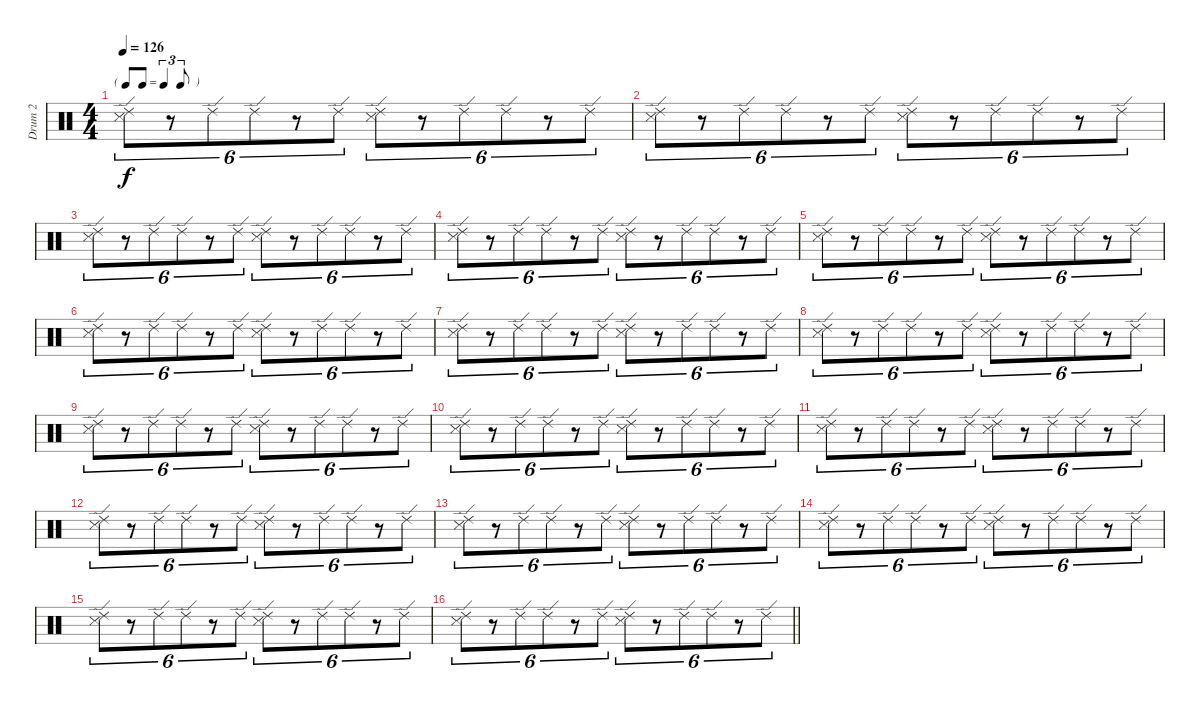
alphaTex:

\track ("Drum 2" "Drum 2") {instrument percussion}
\staff {score}
\articulation defaults
\ts (4 4)
\tf triplet8th
\tempo 126
\clef neutral
\ks c
("Ride (edge) 2" "Snare (side stick) 3").8{tu (6 4) dy f} r.8{tu (6 4)} "Ride (edge) 2".8{tu (6 4)} "Ride (edge) 2".8{tu (6 4)} r.8{tu (6 4)} "Ride (edge) 2".8{tu (6 4)} ("Ride (edge) 2" "Snare (side stick) 3").8{tu (6 4)} r.8{tu (6 4)} "Ride (edge) 2".8{tu (6 4)} "Ride (edge) 2".8{tu (6 4)} r.8{tu (6 4)} "Ride (edge) 2".8{tu (6 4)} |
("Ride (edge) 2" "Snare (side stick) 3").8{tu (6 4)} r.8{tu (6 4)} "Ride (edge) 2".8{tu (6 4)} "Ride (edge) 2".8{tu (6 4)} r.8{tu (6 4)} "Ride (edge) 2".8{tu (6 4)} ("Ride (edge) 2" "Snare (side stick) 3").8{tu (6 4)} r.8{tu (6 4)} "Ride (edge) 2".8{tu (6 4)} "Ride (edge) 2".8{tu (6 4)} r.8{tu (6 4)} "Ride (edge) 2".8{tu (6 4)} |
("Ride (edge) 2" "Snare (side stick) 3").8{tu (6 4)} r.8{tu (6 4)} "Ride (edge) 2".8{tu (6 4)} "Ride (edge) 2".8{tu (6 4)} r.8{tu (6 4)} "Ride (edge) 2".8{tu (6 4)} ("Ride (edge) 2" "Snare (side stick) 3").8{tu (6 4)} r.8{tu (6 4)} "Ride (edge) 2".8{tu (6 4)} "Ride (edge) 2".8{tu (6 4)} r.8{tu (6 4)} "Ride (edge) 2".8{tu (6 4)} |
("Ride (edge) 2" "Snare (side stick) 3").8{tu (6 4)} r.8{tu (6 4)} "Ride (edge) 2".8{tu (6 4)} "Ride (edge) 2".8{tu (6 4)} r.8{tu (6 4)} "Ride (edge) 2".8{tu (6 4)} ("Ride (edge) 2" "Snare (side stick) 3").8{tu (6 4)} r.8{tu (6 4)} "Ride (edge) 2".8{tu (6 4)} "Ride (edge) 2".8{tu (6 4)} r.8{tu (6 4)} "Ride (edge) 2".8{tu (6 4)} |
("Ride (edge) 2" "Snare (side stick) 3").8{tu (6 4)} r.8{tu (6 4)} "Ride (edge) 2".8{tu (6 4)} "Ride (edge) 2".8{tu (6 4)} r.8{tu (6 4)} "Ride (edge) 2".8{tu (6 4)} ("Ride (edge) 2" "Snare (side stick) 3").8{tu (6 4)} r.8{tu (6 4)} "Ride (edge) 2".8{tu (6 4)} "Ride (edge) 2".8{tu (6 4)} r.8{tu (6 4)} "Ride (edge) 2".8{tu (6 4)} |
("Ride (edge) 2" "Snare (side stick) 3").8{tu (6 4)} r.8{tu (6 4)} "Ride (edge) 2".8{tu (6 4)} "Ride (edge) 2".8{tu (6 4)} r.8{tu (6 4)} "Ride (edge) 2".8{tu (6 4)} ("Ride (edge) 2" "Snare (side stick) 3").8{tu (6 4)} r.8{tu (6 4)} "Ride (edge) 2".8{tu (6 4)} "Ride (edge) 2".8{tu (6 4)} r.8{tu (6 4)} "Ride (edge) 2".8{tu (6 4)} |
("Ride (edge) 2" "Snare (side stick) 3").8{tu (6 4)} r.8{tu (6 4)} "Ride (edge) 2".8{tu (6 4)} "Ride (edge) 2".8{tu (6 4)} r.8{tu (6 4)} "Ride (edge) 2".8{tu (6 4)} ("Ride (edge) 2" "Snare (side stick) 3").8{tu (6 4)} r.8{tu (6 4)} "Ride (edge) 2".8{tu (6 4)} "Ride (edge) 2".8{tu (6 4)} r.8{tu (6 4)} "Ride (edge) 2".8{tu (6 4)} |
("Ride (edge) 2" "Snare (side stick) 3").8{tu (6 4)} r.8{tu (6 4)} "Ride (edge) 2".8{tu (6 4)} "Ride (edge) 2".8{tu (6 4)} r.8{tu (6 4)} "Ride (edge) 2".8{tu (6 4)} ("Ride (edge) 2" "Snare (side stick) 3").8{tu (6 4)} r.8{tu (6 4)} "Ride (edge) 2".8{tu (6 4)} "Ride (edge) 2".8{tu (6 4)} r.8{tu (6 4)} "Ride (edge) 2".8{tu (6 4)} |
("Ride (edge) 2" "Snare (side stick) 3").8{tu (6 4)} r.8{tu (6 4)} "Ride (edge) 2".8{tu (6 4)} "Ride (edge) 2".8{tu (6 4)} r.8{tu (6 4)} "Ride (edge) 2".8{tu (6 4)} ("Ride (edge) 2" "Snare (side stick) 3").8{tu (6 4)} r.8{tu (6 4)} "Ride (edge) 2".8{tu (6 4)} "Ride (edge) 2".8{tu (6 4)} r.8{tu (6 4)} "Ride (edge) 2".8{tu (6 4)} |
("Ride (edge) 2" "Snare (side stick) 3").8{tu (6 4)} r.8{tu (6 4)} "Ride (edge) 2".8{tu (6 4)} "Ride (edge) 2".8{tu (6 4)} r.8{tu (6 4)} "Ride (edge) 2".8{tu (6 4)} ("Ride (edge) 2" "Snare (side stick) 3").8{tu (6 4)} r.8{tu (6 4)} "Ride (edge) 2".8{tu (6 4)} "Ride (edge) 2".8{tu (6 4)} r.8{tu (6 4)} "Ride (edge) 2".8{tu (6 4)} |
("Ride (edge) 2" "Snare (side stick) 3").8{tu (6 4)} r.8{tu (6 4)} "Ride (edge) 2".8{tu (6 4)} "Ride (edge) 2".8{tu (6 4)} r.8{tu (6 4)} "Ride (edge) 2".8{tu (6 4)} ("Ride (edge) 2" "Snare (side stick) 3").8{tu (6 4)} r.8{tu (6 4)} "Ride (edge) 2".8{tu (6 4)} "Ride (edge) 2".8{tu (6 4)} r.8{tu (6 4)} "Ride (edge) 2".8{tu (6 4)} |
("Ride (edge) 2" "Snare (side stick) 3").8{tu (6 4)} r.8{tu (6 4)} "Ride (edge) 2".8{tu (6 4)} "Ride (edge) 2".8{tu (6 4)} r.8{tu (6 4)} "Ride (edge) 2".8{tu (6 4)} ("Ride (edge) 2" "Snare (side stick) 3").8{tu (6 4)} r.8{tu (6 4)} "Ride (edge) 2".8{tu (6 4)} "Ride (edge) 2".8{tu (6 4)} r.8{tu (6 4)} "Ride (edge) 2".8{tu (6 4)} |
("Ride (edge) 2" "Snare (side stick) 3").8{tu (6 4)} r.8{tu (6 4)} "Ride (edge) 2".8{tu (6 4)} "Ride (edge) 2".8{tu (6 4)} r.8{tu (6 4)} "Ride (edge) 2".8{tu (6 4)} ("Ride (edge) 2" "Snare (side stick) 3").8{tu (6 4)} r.8{tu (6 4)} "Ride (edge) 2".8{tu (6 4)} "Ride (edge) 2".8{tu (6 4)} r.8{tu (6 4)} "Ride (edge) 2".8{tu (6 4)} |
("Ride (edge) 2" "Snare (side stick) 3").8{tu (6 4)} r.8{tu (6 4)} "Ride (edge) 2".8{tu (6 4)} "Ride (edge) 2".8{tu (6 4)} r.8{tu (6 4)} "Ride (edge) 2".8{tu (6 4)} ("Ride (edge) 2" "Snare (side stick) 3").8{tu (6 4)} r.8{tu (6 4)} "Ride (edge) 2".8{tu (6 4)} "Ride (edge) 2".8{tu (6 4)} r.8{tu (6 4)} "Ride (edge) 2".8{tu (6 4)} |
("Ride (edge) 2" "Snare (side stick) 3").8{tu (6 4)} r.8{tu (6 4)} "Ride (edge) 2".8{tu (6 4)} "Ride (edge) 2".8{tu (6 4)} r.8{tu (6 4)} "Ride (edge) 2".8{tu (6 4)} ("Ride (edge) 2" "Snare (side stick) 3").8{tu (6 4)} r.8{tu (6 4)} "Ride (edge) 2".8{tu (6 4)} "Ride (edge) 2".8{tu (6 4)} r.8{tu (6 4)} "Ride (edge) 2".8{tu (6 4)} |
\barLineRight lightlight
("Ride (edge) 2" "Snare (side stick) 3").8{tu (6 4)} r.8{tu (6 4)} "Ride (edge) 2".8{tu (6 4)} "Ride (edge) 2".8{tu (6 4)} r.8{tu (6 4)} "Ride (edge) 2".8{tu (6 4)} ("Ride (edge) 2" "Snare (side stick) 3").8{tu (6 4)} r.8{tu (6 4)} "Ride (edge) 2".8{tu (6 4)} "Ride (edge) 2".8{tu (6 4)} r.8{tu (6 4)} "Ride (edge) 2".8{tu (6 4)}
